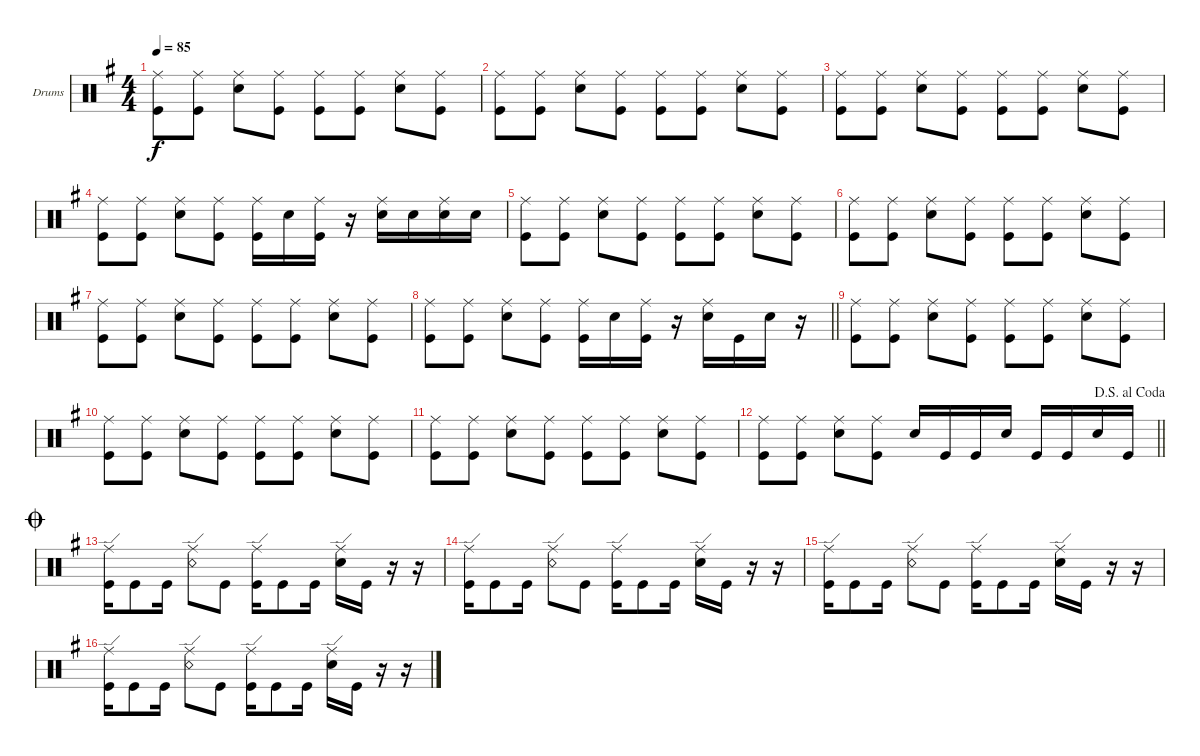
\bracketExtendMode groupsimilarinstruments
\firstSystemTrackNameOrientation horizontal
\otherSystemsTrackNameOrientation horizontal
\track ("Drumkit" "Drums") {instrument percussion}
\staff {score}
\articulation defaults
\ts (4 4)
\tempo 85
\clef neutral
\scale
0.333333
\ks eminor
("Kick (hit)" "Ride (middle)").8{dy f} ("Kick (hit)" "Ride (middle)").8 ("Snare (hit) 2" "Ride (middle)").8 ("Kick (hit)" "Ride (middle)").8 ("Kick (hit)" "Ride (middle)").8 ("Kick (hit)" "Ride (middle)").8 ("Snare (hit) 2" "Ride (middle)").8 ("Kick (hit)" "Ride (middle)").8 |
\scale
0.333333 ("Kick (hit)" "Ride (middle)").8 ("Kick (hit)" "Ride (middle)").8 ("Snare (hit) 2" "Ride (middle)").8 ("Kick (hit)" "Ride (middle)").8 ("Kick (hit)" "Ride (middle)").8 ("Kick (hit)" "Ride (middle)").8 ("Snare (hit) 2" "Ride (middle)").8 ("Kick (hit)" "Ride (middle)").8 |
\scale
0.333333 ("Kick (hit)" "Ride (middle)").8 ("Kick (hit)" "Ride (middle)").8 ("Snare (hit) 2" "Ride (middle)").8 ("Kick (hit)" "Ride (middle)").8 ("Kick (hit)" "Ride (middle)").8 ("Kick (hit)" "Ride (middle)").8 ("Snare (hit) 2" "Ride (middle)").8 ("Kick (hit)" "Ride (middle)").8 |
\scale
0.333333 ("Kick (hit)" "Ride (middle)").8 ("Kick (hit)" "Ride (middle)").8 ("Snare (hit) 2" "Ride (middle)").8 ("Kick (hit)" "Ride (middle)").8 ("Kick (hit)" "Ride (middle)").16 "Snare (hit) 2".16 ("Kick (hit)" "Ride (middle)").16 r.16 ("Snare (hit) 2" "Ride (middle)").16 "Snare (hit) 2".16 ("Snare (hit) 2" "Ride (middle)").16 "Snare (hit) 2".16 |
\scale
0.333333 ("Kick (hit)" "Ride (middle)").8 ("Kick (hit)" "Ride (middle)").8 ("Snare (hit) 2" "Ride (middle)").8 ("Kick (hit)" "Ride (middle)").8 ("Kick (hit)" "Ride (middle)").8 ("Kick (hit)" "Ride (middle)").8 ("Snare (hit) 2" "Ride (middle)").8 ("Kick (hit)" "Ride (middle)").8 |
\scale
0.333333 ("Kick (hit)" "Ride (middle)").8 ("Kick (hit)" "Ride (middle)").8 ("Snare (hit) 2" "Ride (middle)").8 ("Kick (hit)" "Ride (middle)").8 ("Kick (hit)" "Ride (middle)").8 ("Kick (hit)" "Ride (middle)").8 ("Snare (hit) 2" "Ride (middle)").8 ("Kick (hit)" "Ride (middle)").8 |
\scale
0.333333 ("Kick (hit)" "Ride (middle)").8 ("Kick (hit)" "Ride (middle)").8 ("Snare (hit) 2" "Ride (middle)").8 ("Kick (hit)" "Ride (middle)").8 ("Kick (hit)" "Ride (middle)").8 ("Kick (hit)" "Ride (middle)").8 ("Snare (hit) 2" "Ride (middle)").8 ("Kick (hit)" "Ride (middle)").8 |
\scale
0.333333
\barLineRight lightlight
("Kick (hit)" "Ride (middle)").8 ("Kick (hit)" "Ride (middle)").8 ("Snare (hit) 2" "Ride (middle)").8 ("Kick (hit)" "Ride (middle)").8 ("Kick (hit)" "Ride (middle)").16 "Snare (hit) 2".16 ("Kick (hit)" "Ride (middle)").16 r.16 ("Snare (hit) 2" "Ride (middle)").16 "Kick (hit)".16 "Snare (hit) 2".16 r.16 |
\scale
0.333333 ("Kick (hit)" "Ride (middle)").8 ("Kick (hit)" "Ride (middle)").8 ("Snare (hit) 2" "Ride (middle)").8 ("Kick (hit)" "Ride (middle)").8 ("Kick (hit)" "Ride (middle)").8 ("Kick (hit)" "Ride (middle)").8 ("Snare (hit) 2" "Ride (middle)").8 ("Kick (hit)" "Ride (middle)").8 |
\scale
0.333333 ("Kick (hit)" "Ride (middle)").8 ("Kick (hit)" "Ride (middle)").8 ("Snare (hit) 2" "Ride (middle)").8 ("Kick (hit)" "Ride (middle)").8 ("Kick (hit)" "Ride (middle)").8 ("Kick (hit)" "Ride (middle)").8 ("Snare (hit) 2" "Ride (middle)").8 ("Kick (hit)" "Ride (middle)").8 |
\scale
0.333333 ("Kick (hit)" "Ride (middle)").8 ("Kick (hit)" "Ride (middle)").8 ("Snare (hit) 2" "Ride (middle)").8 ("Kick (hit)" "Ride (middle)").8 ("Kick (hit)" "Ride (middle)").8 ("Kick (hit)" "Ride (middle)").8 ("Snare (hit) 2" "Ride (middle)").8 ("Kick (hit)" "Ride (middle)").8 |
\jump dalsegnoalcoda
\scale
0.333333
\barLineRight lightlight
("Kick (hit)" "Ride (middle)").8 ("Kick (hit)" "Ride (middle)").8 ("Snare (hit) 2" "Ride (middle)").8 ("Kick (hit)" "Ride (middle)").8 "Snare (hit) 2".16 "Kick (hit)".16 "Kick (hit)".16 "Snare (hit) 2".16 "Kick (hit)".16 "Kick (hit)".16 "Snare (hit) 2".16 "Kick (hit)".16 |
\jump coda
\scale
0.333333 ("Kick (hit)" "Ride (edge)").16 "Kick (hit)".8 "Kick (hit)".16 ("Snare (rim shot)" "Ride (edge)").8 "Kick (hit)".8 ("Kick (hit)" "Ride (edge)").16 "Kick (hit)".8 "Kick (hit)".16 ("Snare (hit) 2" "Ride (edge)").16 "Kick (hit)".16 r.16 r.16 |
\scale
0.333333 ("Kick (hit)" "Ride (edge)").16 "Kick (hit)".8 "Kick (hit)".16 ("Snare (rim shot)" "Ride (edge)").8 "Kick (hit)".8 ("Kick (hit)" "Ride (edge)").16 "Kick (hit)".8 "Kick (hit)".16 ("Snare (hit) 2" "Ride (edge)").16 "Kick (hit)".16 r.16 r.16 |
\scale
0.333333 ("Kick (hit)" "Ride (edge)").16 "Kick (hit)".8 "Kick (hit)".16 ("Snare (rim shot)" "Ride (edge)").8 "Kick (hit)".8 ("Kick (hit)" "Ride (edge)").16 "Kick (hit)".8 "Kick (hit)".16 ("Snare (hit) 2" "Ride (edge)").16 "Kick (hit)".16 r.16 r.16 |
\scale
0.333333 ("Kick (hit)" "Ride (edge)").16 "Kick (hit)".8 "Kick (hit)".16 ("Snare (rim shot)" "Ride (edge)").8 "Kick (hit)".8 ("Kick (hit)" "Ride (edge)").16 "Kick (hit)".8 "Kick (hit)".16 ("Snare (hit) 2" "Ride (edge)").16 "Kick (hit)".16 r.16 r.16
